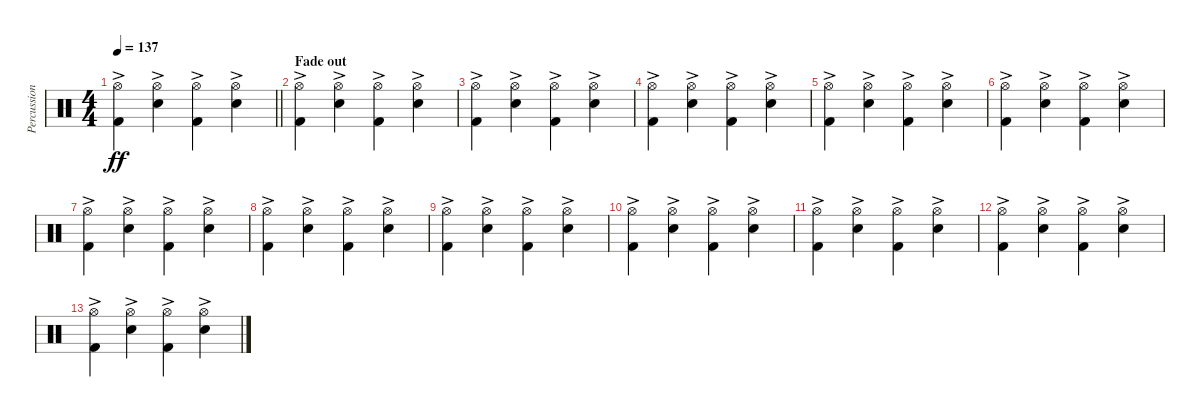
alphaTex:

\track ("Percussion" "Percussion") {instrument percussion}
\staff {score}
\articulation defaults
\ts (4 4)
\tempo 137
\clef neutral
\barLineRight lightlight
\ks c
("Hi-Hat (open)"{ac} "Kick (hit) 2").4{dy ff} ("Hi-Hat (open)"{ac} "Snare (hit) 2").4 ("Hi-Hat (open)"{ac} "Kick (hit) 2").4 ("Hi-Hat (open)"{ac} "Snare (hit) 2").4 |
\section ("" "Fade out")
("Hi-Hat (open)"{ac} "Kick (hit) 2").4{volume 9} ("Hi-Hat (open)"{ac} "Snare (hit) 2").4 ("Hi-Hat (open)"{ac} "Kick (hit) 2").4 ("Hi-Hat (open)"{ac} "Snare (hit) 2").4 |
("Hi-Hat (open)"{ac} "Kick (hit) 2").4 ("Hi-Hat (open)"{ac} "Snare (hit) 2").4 ("Hi-Hat (open)"{ac} "Kick (hit) 2").4 ("Hi-Hat (open)"{ac} "Snare (hit) 2").4 |
("Hi-Hat (open)"{ac} "Kick (hit) 2").4 ("Hi-Hat (open)"{ac} "Snare (hit) 2").4 ("Hi-Hat (open)"{ac} "Kick (hit) 2").4 ("Hi-Hat (open)"{ac} "Snare (hit) 2").4 |
("Hi-Hat (open)"{ac} "Kick (hit) 2").4 ("Hi-Hat (open)"{ac} "Snare (hit) 2").4 ("Hi-Hat (open)"{ac} "Kick (hit) 2").4 ("Hi-Hat (open)"{ac} "Snare (hit) 2").4 |
("Hi-Hat (open)"{ac} "Kick (hit) 2").4{volume 5} ("Hi-Hat (open)"{ac} "Snare (hit) 2").4 ("Hi-Hat (open)"{ac} "Kick (hit) 2").4 ("Hi-Hat (open)"{ac} "Snare (hit) 2").4 |
("Hi-Hat (open)"{ac} "Kick (hit) 2").4 ("Hi-Hat (open)"{ac} "Snare (hit) 2").4 ("Hi-Hat (open)"{ac} "Kick (hit) 2").4 ("Hi-Hat (open)"{ac} "Snare (hit) 2").4 |
("Hi-Hat (open)"{ac} "Kick (hit) 2").4 ("Hi-Hat (open)"{ac} "Snare (hit) 2").4 ("Hi-Hat (open)"{ac} "Kick (hit) 2").4 ("Hi-Hat (open)"{ac} "Snare (hit) 2").4 |
("Hi-Hat (open)"{ac} "Kick (hit) 2").4 ("Hi-Hat (open)"{ac} "Snare (hit) 2").4 ("Hi-Hat (open)"{ac} "Kick (hit) 2").4 ("Hi-Hat (open)"{ac} "Snare (hit) 2").4 |
("Hi-Hat (open)"{ac} "Kick (hit) 2").4{volume 2} ("Hi-Hat (open)"{ac} "Snare (hit) 2").4 ("Hi-Hat (open)"{ac} "Kick (hit) 2").4 ("Hi-Hat (open)"{ac} "Snare (hit) 2").4 |
("Hi-Hat (open)"{ac} "Kick (hit) 2").4 ("Hi-Hat (open)"{ac} "Snare (hit) 2").4 ("Hi-Hat (open)"{ac} "Kick (hit) 2").4 ("Hi-Hat (open)"{ac} "Snare (hit) 2").4 |
("Hi-Hat (open)"{ac} "Kick (hit) 2").4 ("Hi-Hat (open)"{ac} "Snare (hit) 2").4 ("Hi-Hat (open)"{ac} "Kick (hit) 2").4 ("Hi-Hat (open)"{ac} "Snare (hit) 2").4 |
("Hi-Hat (open)"{ac} "Kick (hit) 2").4 ("Hi-Hat (open)"{ac} "Snare (hit) 2").4 ("Hi-Hat (open)"{ac} "Kick (hit) 2").4 ("Hi-Hat (open)"{ac} "Snare (hit) 2").4
